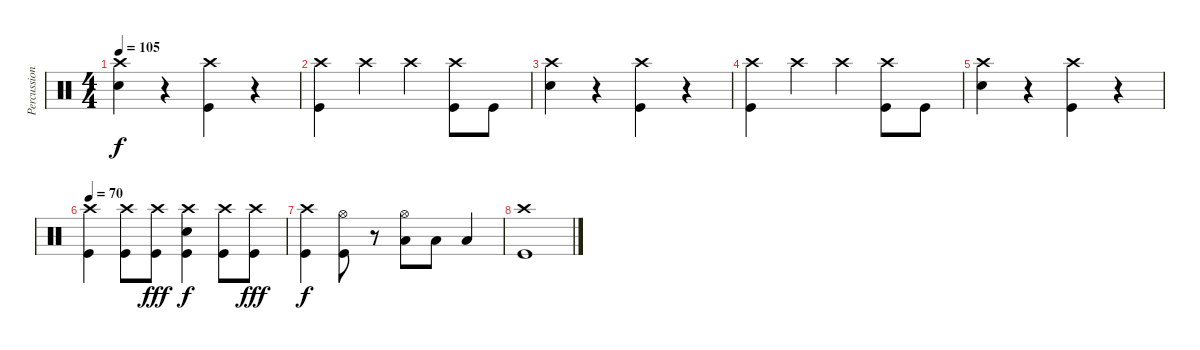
\track ("Percussions" "Percussion") {instrument percussion}
\staff {score}
\articulation defaults
\ts (4 4)
\tempo 105
\clef neutral
\ks c
("Crash high (hit)" "Snare (hit) 2").4{dy f} r.4 ("Crash high (hit)" "Kick (hit)").4 r.4 |
("Crash high (hit)" "Kick (hit)").4 "Crash high (hit)".4 "Crash high (hit)".4 ("Crash high (hit)" "Kick (hit)").8 "Kick (hit)".8 |
("Crash high (hit)" "Snare (hit) 2").4 r.4 ("Crash high (hit)" "Kick (hit)").4 r.4 |
("Crash high (hit)" "Kick (hit)").4 "Crash high (hit)".4 "Crash high (hit)".4 ("Crash high (hit)" "Kick (hit)").8 "Kick (hit)".8 |
("Crash high (hit)" "Snare (hit) 2").4 r.4 ("Crash high (hit)" "Kick (hit)").4 r.4 |
\tempo 70
("Crash high (hit)" "Kick (hit)").4 ("Crash high (hit)" "Kick (hit)").8 ("Crash high (hit)" "Kick (hit)").8{dy fff} ("Crash high (hit)" "Snare (hit) 2" "Kick (hit)").4{dy f} ("Crash high (hit)" "Kick (hit)").8 ("Crash high (hit)" "Kick (hit)").8{dy fff} |
("Crash high (hit)" "Kick (hit)").4{dy f} ("Hi-Hat (open)" "Kick (hit)").8 r.8 ("Hi-Hat (open)" "Low Tom (hit)").8 "Low Tom (hit)".8 "Low Tom (hit)".4 |
("Crash high (hit)" "Kick (hit)").1
